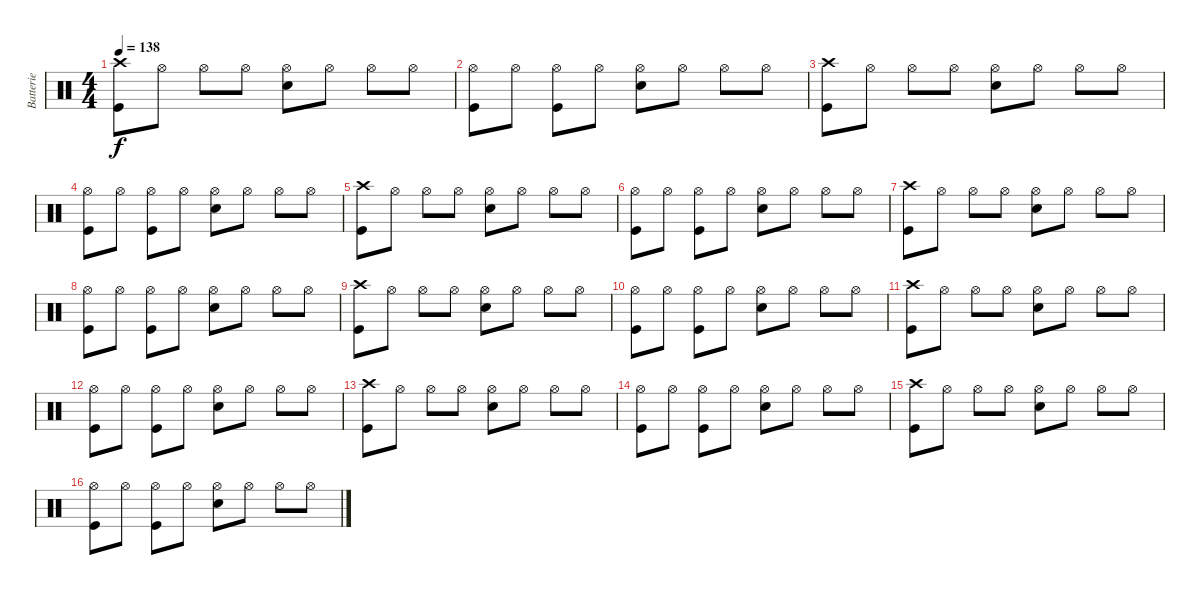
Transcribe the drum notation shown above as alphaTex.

\track ("Batterie" "Batterie") {instrument percussion}
\staff {score}
\articulation defaults
\ts (4 4)
\tempo 138
\clef neutral
\ks c
("Crash high (hit)" "Kick (hit)").8{dy f} "Hi-Hat (open)".8 "Hi-Hat (open)".8 "Hi-Hat (open)".8 ("Hi-Hat (open)" "Snare (hit) 2").8 "Hi-Hat (open)".8 "Hi-Hat (open)".8 "Hi-Hat (open)".8 |
("Hi-Hat (open)" "Kick (hit)").8 "Hi-Hat (open)".8 ("Hi-Hat (open)" "Kick (hit)").8 "Hi-Hat (open)".8 ("Hi-Hat (open)" "Snare (hit) 2").8 "Hi-Hat (open)".8 "Hi-Hat (open)".8 "Hi-Hat (open)".8 |
("Crash high (hit)" "Kick (hit)").8 "Hi-Hat (open)".8 "Hi-Hat (open)".8 "Hi-Hat (open)".8 ("Hi-Hat (open)" "Snare (hit) 2").8 "Hi-Hat (open)".8 "Hi-Hat (open)".8 "Hi-Hat (open)".8 |
("Hi-Hat (open)" "Kick (hit)").8 "Hi-Hat (open)".8 ("Hi-Hat (open)" "Kick (hit)").8 "Hi-Hat (open)".8 ("Hi-Hat (open)" "Snare (hit) 2").8 "Hi-Hat (open)".8 "Hi-Hat (open)".8 "Hi-Hat (open)".8 |
("Crash high (hit)" "Kick (hit)").8 "Hi-Hat (open)".8 "Hi-Hat (open)".8 "Hi-Hat (open)".8 ("Hi-Hat (open)" "Snare (hit) 2").8 "Hi-Hat (open)".8 "Hi-Hat (open)".8 "Hi-Hat (open)".8 |
("Hi-Hat (open)" "Kick (hit)").8 "Hi-Hat (open)".8 ("Hi-Hat (open)" "Kick (hit)").8 "Hi-Hat (open)".8 ("Hi-Hat (open)" "Snare (hit) 2").8 "Hi-Hat (open)".8 "Hi-Hat (open)".8 "Hi-Hat (open)".8 |
("Crash high (hit)" "Kick (hit)").8 "Hi-Hat (open)".8 "Hi-Hat (open)".8 "Hi-Hat (open)".8 ("Hi-Hat (open)" "Snare (hit) 2").8 "Hi-Hat (open)".8 "Hi-Hat (open)".8 "Hi-Hat (open)".8 |
("Hi-Hat (open)" "Kick (hit)").8 "Hi-Hat (open)".8 ("Hi-Hat (open)" "Kick (hit)").8 "Hi-Hat (open)".8 ("Hi-Hat (open)" "Snare (hit) 2").8 "Hi-Hat (open)".8 "Hi-Hat (open)".8 "Hi-Hat (open)".8 |
("Crash high (hit)" "Kick (hit)").8 "Hi-Hat (open)".8 "Hi-Hat (open)".8 "Hi-Hat (open)".8 ("Hi-Hat (open)" "Snare (hit) 2").8 "Hi-Hat (open)".8 "Hi-Hat (open)".8 "Hi-Hat (open)".8 |
("Hi-Hat (open)" "Kick (hit)").8 "Hi-Hat (open)".8 ("Hi-Hat (open)" "Kick (hit)").8 "Hi-Hat (open)".8 ("Hi-Hat (open)" "Snare (hit) 2").8 "Hi-Hat (open)".8 "Hi-Hat (open)".8 "Hi-Hat (open)".8 |
("Crash high (hit)" "Kick (hit)").8 "Hi-Hat (open)".8 "Hi-Hat (open)".8 "Hi-Hat (open)".8 ("Hi-Hat (open)" "Snare (hit) 2").8 "Hi-Hat (open)".8 "Hi-Hat (open)".8 "Hi-Hat (open)".8 |
("Hi-Hat (open)" "Kick (hit)").8 "Hi-Hat (open)".8 ("Hi-Hat (open)" "Kick (hit)").8 "Hi-Hat (open)".8 ("Hi-Hat (open)" "Snare (hit) 2").8 "Hi-Hat (open)".8 "Hi-Hat (open)".8 "Hi-Hat (open)".8 |
("Crash high (hit)" "Kick (hit)").8 "Hi-Hat (open)".8 "Hi-Hat (open)".8 "Hi-Hat (open)".8 ("Hi-Hat (open)" "Snare (hit) 2").8 "Hi-Hat (open)".8 "Hi-Hat (open)".8 "Hi-Hat (open)".8 |
("Hi-Hat (open)" "Kick (hit)").8 "Hi-Hat (open)".8 ("Hi-Hat (open)" "Kick (hit)").8 "Hi-Hat (open)".8 ("Hi-Hat (open)" "Snare (hit) 2").8 "Hi-Hat (open)".8 "Hi-Hat (open)".8 "Hi-Hat (open)".8 |
("Crash high (hit)" "Kick (hit)").8 "Hi-Hat (open)".8 "Hi-Hat (open)".8 "Hi-Hat (open)".8 ("Hi-Hat (open)" "Snare (hit) 2").8 "Hi-Hat (open)".8 "Hi-Hat (open)".8 "Hi-Hat (open)".8 |
("Hi-Hat (open)" "Kick (hit)").8 "Hi-Hat (open)".8 ("Hi-Hat (open)" "Kick (hit)").8 "Hi-Hat (open)".8 ("Hi-Hat (open)" "Snare (hit) 2").8 "Hi-Hat (open)".8 "Hi-Hat (open)".8 "Hi-Hat (open)".8
